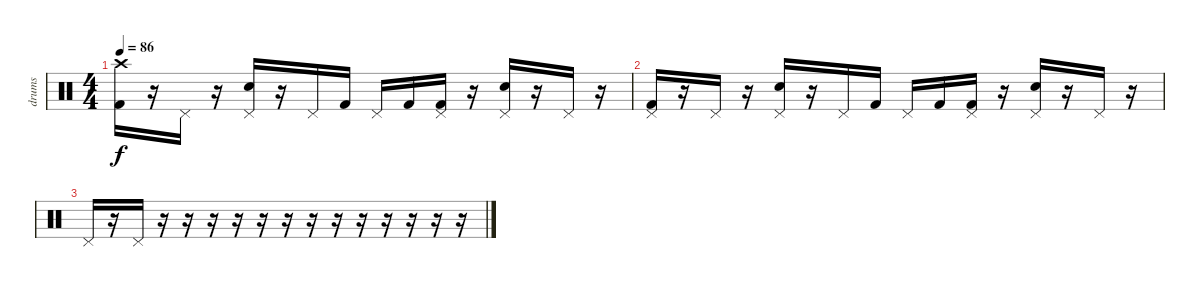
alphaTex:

\track ("drums" "drums") {instrument percussion}
\staff {score}
\articulation defaults
\ts (4 4)
\tempo 86
\clef neutral
\ks c
("Kick (hit) 2" "Crash high (hit)").16{dy f} r.16 "Pedal Hi-Hat (hit)".16 r.16 ("Electric Snare (hit)" "Pedal Hi-Hat (hit)").16 r.16 "Pedal Hi-Hat (hit)".16 "Kick (hit) 2".16 "Pedal Hi-Hat (hit)".16 "Kick (hit) 2".16 ("Kick (hit) 2" "Pedal Hi-Hat (hit)").16 r.16 ("Electric Snare (hit)" "Pedal Hi-Hat (hit)").16 r.16 "Pedal Hi-Hat (hit)".16 r.16 |
("Kick (hit) 2" "Pedal Hi-Hat (hit)").16 r.16 "Pedal Hi-Hat (hit)".16 r.16 ("Electric Snare (hit)" "Pedal Hi-Hat (hit)").16 r.16 "Pedal Hi-Hat (hit)".16 "Kick (hit) 2".16 "Pedal Hi-Hat (hit)".16 "Kick (hit) 2".16 ("Kick (hit) 2" "Pedal Hi-Hat (hit)").16 r.16 ("Electric Snare (hit)" "Pedal Hi-Hat (hit)").16 r.16 "Pedal Hi-Hat (hit)".16 r.16 |
"Pedal Hi-Hat (hit)".16 r.16 "Pedal Hi-Hat (hit)".16 r.16 r.16 r.16 r.16 r.16 r.16 r.16 r.16 r.16 r.16 r.16 r.16 r.16
